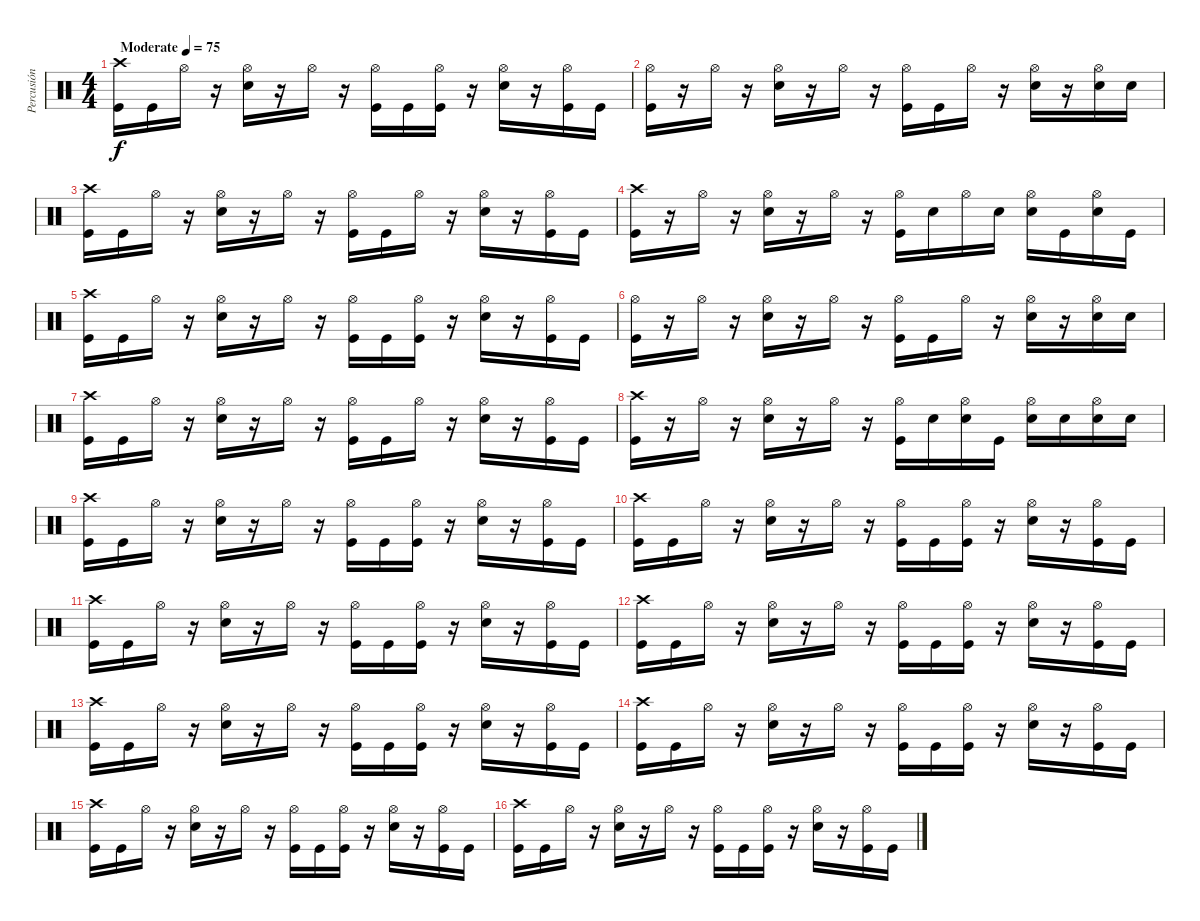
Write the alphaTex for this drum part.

\track ("Percusión" "Percusión") {instrument percussion}
\staff {score}
\articulation defaults
\ts (4 4)
\tempo (75 "Moderate")
\clef neutral
\ks c
("Kick (hit)" "Crash high (hit)").16{dy f} "Kick (hit)".16 "Hi-Hat (open)".16 r.16 ("Snare (hit) 2" "Hi-Hat (open)").16 r.16 "Hi-Hat (open)".16 r.16 ("Kick (hit)" "Hi-Hat (open)").16 "Kick (hit)".16 ("Kick (hit)" "Hi-Hat (open)").16 r.16 ("Snare (hit) 2" "Hi-Hat (open)").16 r.16 ("Kick (hit)" "Hi-Hat (open)").16 "Kick (hit)".16 |
("Kick (hit)" "Hi-Hat (open)").16 r.16 "Hi-Hat (open)".16 r.16 ("Snare (hit) 2" "Hi-Hat (open)").16 r.16 "Hi-Hat (open)".16 r.16 ("Kick (hit)" "Hi-Hat (open)").16 "Kick (hit)".16 "Hi-Hat (open)".16 r.16 ("Snare (hit) 2" "Hi-Hat (open)").16 r.16 ("Snare (hit) 2" "Hi-Hat (open)").16 "Snare (hit) 2".16 |
("Kick (hit)" "Crash high (hit)").16 "Kick (hit)".16 "Hi-Hat (open)".16 r.16 ("Snare (hit) 2" "Hi-Hat (open)").16 r.16 "Hi-Hat (open)".16 r.16 ("Kick (hit)" "Hi-Hat (open)").16 "Kick (hit)".16 "Hi-Hat (open)".16 r.16 ("Snare (hit) 2" "Hi-Hat (open)").16 r.16 ("Kick (hit)" "Hi-Hat (open)").16 "Kick (hit)".16 |
("Kick (hit)" "Crash high (hit)").16 r.16 "Hi-Hat (open)".16 r.16 ("Snare (hit) 2" "Hi-Hat (open)").16 r.16 "Hi-Hat (open)".16 r.16 ("Kick (hit)" "Hi-Hat (open)").16 "Snare (hit) 2".16 "Hi-Hat (open)".16 "Snare (hit) 2".16 ("Snare (hit) 2" "Hi-Hat (open)").16 "Kick (hit)".16 ("Snare (hit) 2" "Hi-Hat (open)").16 "Kick (hit)".16 |
("Kick (hit)" "Crash high (hit)").16 "Kick (hit)".16 "Hi-Hat (open)".16 r.16 ("Snare (hit) 2" "Hi-Hat (open)").16 r.16 "Hi-Hat (open)".16 r.16 ("Kick (hit)" "Hi-Hat (open)").16 "Kick (hit)".16 ("Kick (hit)" "Hi-Hat (open)").16 r.16 ("Snare (hit) 2" "Hi-Hat (open)").16 r.16 ("Kick (hit)" "Hi-Hat (open)").16 "Kick (hit)".16 |
("Kick (hit)" "Hi-Hat (open)").16 r.16 "Hi-Hat (open)".16 r.16 ("Snare (hit) 2" "Hi-Hat (open)").16 r.16 "Hi-Hat (open)".16 r.16 ("Kick (hit)" "Hi-Hat (open)").16 "Kick (hit)".16 "Hi-Hat (open)".16 r.16 ("Snare (hit) 2" "Hi-Hat (open)").16 r.16 ("Snare (hit) 2" "Hi-Hat (open)").16 "Snare (hit) 2".16 |
("Kick (hit)" "Crash high (hit)").16 "Kick (hit)".16 "Hi-Hat (open)".16 r.16 ("Snare (hit) 2" "Hi-Hat (open)").16 r.16 "Hi-Hat (open)".16 r.16 ("Kick (hit)" "Hi-Hat (open)").16 "Kick (hit)".16 "Hi-Hat (open)".16 r.16 ("Snare (hit) 2" "Hi-Hat (open)").16 r.16 ("Kick (hit)" "Hi-Hat (open)").16 "Kick (hit)".16 |
("Kick (hit)" "Crash high (hit)").16 r.16 "Hi-Hat (open)".16 r.16 ("Snare (hit) 2" "Hi-Hat (open)").16 r.16 "Hi-Hat (open)".16 r.16 ("Kick (hit)" "Hi-Hat (open)").16 "Snare (hit) 2".16 ("Snare (hit) 2" "Hi-Hat (open)").16 "Kick (hit)".16 ("Snare (hit) 2" "Hi-Hat (open)").16 "Snare (hit) 2".16 ("Snare (hit) 2" "Hi-Hat (open)").16 "Snare (hit) 2".16 |
("Kick (hit)" "Crash high (hit)").16 "Kick (hit)".16 "Hi-Hat (open)".16 r.16 ("Snare (hit) 2" "Hi-Hat (open)").16 r.16 "Hi-Hat (open)".16 r.16 ("Kick (hit)" "Hi-Hat (open)").16 "Kick (hit)".16 ("Kick (hit)" "Hi-Hat (open)").16 r.16 ("Snare (hit) 2" "Hi-Hat (open)").16 r.16 ("Kick (hit)" "Hi-Hat (open)").16 "Kick (hit)".16 |
("Kick (hit)" "Crash high (hit)").16 "Kick (hit)".16 "Hi-Hat (open)".16 r.16 ("Snare (hit) 2" "Hi-Hat (open)").16 r.16 "Hi-Hat (open)".16 r.16 ("Kick (hit)" "Hi-Hat (open)").16 "Kick (hit)".16 ("Kick (hit)" "Hi-Hat (open)").16 r.16 ("Snare (hit) 2" "Hi-Hat (open)").16 r.16 ("Kick (hit)" "Hi-Hat (open)").16 "Kick (hit)".16 |
("Kick (hit)" "Crash high (hit)").16 "Kick (hit)".16 "Hi-Hat (open)".16 r.16 ("Snare (hit) 2" "Hi-Hat (open)").16 r.16 "Hi-Hat (open)".16 r.16 ("Kick (hit)" "Hi-Hat (open)").16 "Kick (hit)".16 ("Kick (hit)" "Hi-Hat (open)").16 r.16 ("Snare (hit) 2" "Hi-Hat (open)").16 r.16 ("Kick (hit)" "Hi-Hat (open)").16 "Kick (hit)".16 |
("Kick (hit)" "Crash high (hit)").16 "Kick (hit)".16 "Hi-Hat (open)".16 r.16 ("Snare (hit) 2" "Hi-Hat (open)").16 r.16 "Hi-Hat (open)".16 r.16 ("Kick (hit)" "Hi-Hat (open)").16 "Kick (hit)".16 ("Kick (hit)" "Hi-Hat (open)").16 r.16 ("Snare (hit) 2" "Hi-Hat (open)").16 r.16 ("Kick (hit)" "Hi-Hat (open)").16 "Kick (hit)".16 |
("Kick (hit)" "Crash high (hit)").16 "Kick (hit)".16 "Hi-Hat (open)".16 r.16 ("Snare (hit) 2" "Hi-Hat (open)").16 r.16 "Hi-Hat (open)".16 r.16 ("Kick (hit)" "Hi-Hat (open)").16 "Kick (hit)".16 ("Kick (hit)" "Hi-Hat (open)").16 r.16 ("Snare (hit) 2" "Hi-Hat (open)").16 r.16 ("Kick (hit)" "Hi-Hat (open)").16 "Kick (hit)".16 |
("Kick (hit)" "Crash high (hit)").16 "Kick (hit)".16 "Hi-Hat (open)".16 r.16 ("Snare (hit) 2" "Hi-Hat (open)").16 r.16 "Hi-Hat (open)".16 r.16 ("Kick (hit)" "Hi-Hat (open)").16 "Kick (hit)".16 ("Kick (hit)" "Hi-Hat (open)").16 r.16 ("Snare (hit) 2" "Hi-Hat (open)").16 r.16 ("Kick (hit)" "Hi-Hat (open)").16 "Kick (hit)".16 |
("Kick (hit)" "Crash high (hit)").16 "Kick (hit)".16 "Hi-Hat (open)".16 r.16 ("Snare (hit) 2" "Hi-Hat (open)").16 r.16 "Hi-Hat (open)".16 r.16 ("Kick (hit)" "Hi-Hat (open)").16 "Kick (hit)".16 ("Kick (hit)" "Hi-Hat (open)").16 r.16 ("Snare (hit) 2" "Hi-Hat (open)").16 r.16 ("Kick (hit)" "Hi-Hat (open)").16 "Kick (hit)".16 |
("Kick (hit)" "Crash high (hit)").16 "Kick (hit)".16 "Hi-Hat (open)".16 r.16 ("Snare (hit) 2" "Hi-Hat (open)").16 r.16 "Hi-Hat (open)".16 r.16 ("Kick (hit)" "Hi-Hat (open)").16 "Kick (hit)".16 ("Kick (hit)" "Hi-Hat (open)").16 r.16 ("Snare (hit) 2" "Hi-Hat (open)").16 r.16 ("Kick (hit)" "Hi-Hat (open)").16 "Kick (hit)".16
